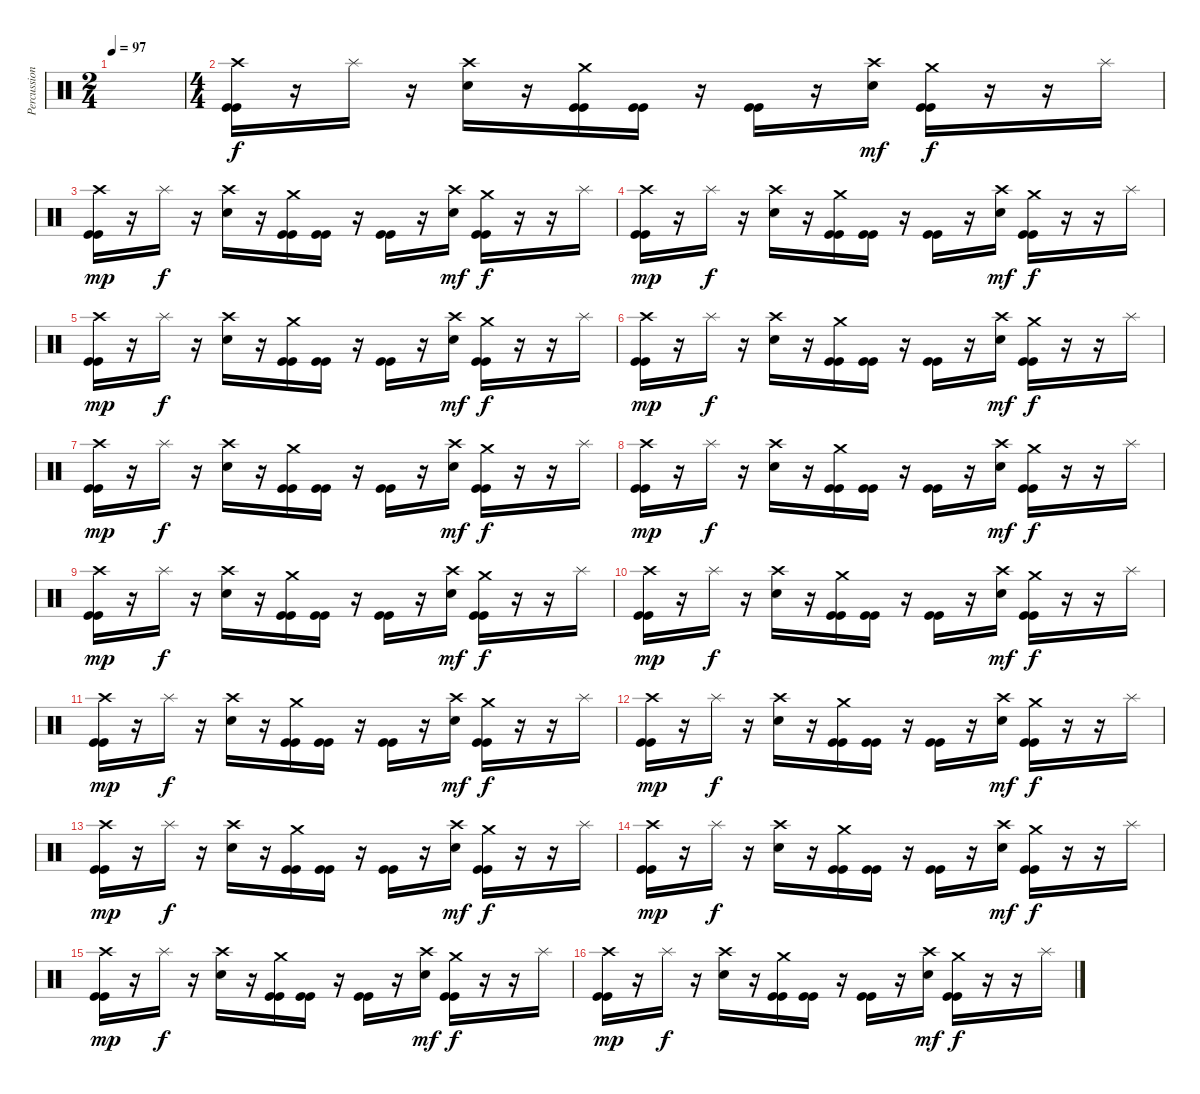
\track ("Percussions" "Percussion") {instrument percussion}
\staff {score}
\articulation defaults
\ts (2 4)
\tempo 97
\clef neutral
\ks c
|
\ts (4 4)
("Crash high (hit)" "Kick (hit)" "Kick (hit)").16 r.16 "Splash (hit)".16{dy f} r.16 ("Crash high (hit)" "Electric Snare (hit)").16 r.16 ("Crash medium (hit)" "Kick (hit)" "Kick (hit)").16 ("Kick (hit)" "Kick (hit)").16 r.16 ("Kick (hit)" "Kick (hit)").16 r.16 ("Crash high (hit)" "Electric Snare (hit)").16{dy mf} ("Crash medium (hit)" "Kick (hit)" "Kick (hit)").16{dy f} r.16 r.16 "Splash (hit)".16 |
("Crash high (hit)" "Kick (hit)" "Kick (hit)").16{dy mp} r.16 "Splash (hit)".16{dy f} r.16 ("Crash high (hit)" "Electric Snare (hit)").16 r.16 ("Crash medium (hit)" "Kick (hit)" "Kick (hit)").16 ("Kick (hit)" "Kick (hit)").16 r.16 ("Kick (hit)" "Kick (hit)").16 r.16 ("Crash high (hit)" "Electric Snare (hit)").16{dy mf} ("Crash medium (hit)" "Kick (hit)" "Kick (hit)").16{dy f} r.16 r.16 "Splash (hit)".16 |
("Crash high (hit)" "Kick (hit)" "Kick (hit)").16{dy mp} r.16 "Splash (hit)".16{dy f} r.16 ("Crash high (hit)" "Electric Snare (hit)").16 r.16 ("Crash medium (hit)" "Kick (hit)" "Kick (hit)").16 ("Kick (hit)" "Kick (hit)").16 r.16 ("Kick (hit)" "Kick (hit)").16 r.16 ("Crash high (hit)" "Electric Snare (hit)").16{dy mf} ("Crash medium (hit)" "Kick (hit)" "Kick (hit)").16{dy f} r.16 r.16 "Splash (hit)".16 |
("Crash high (hit)" "Kick (hit)" "Kick (hit)").16{dy mp} r.16 "Splash (hit)".16{dy f} r.16 ("Crash high (hit)" "Electric Snare (hit)").16 r.16 ("Crash medium (hit)" "Kick (hit)" "Kick (hit)").16 ("Kick (hit)" "Kick (hit)").16 r.16 ("Kick (hit)" "Kick (hit)").16 r.16 ("Crash high (hit)" "Electric Snare (hit)").16{dy mf} ("Crash medium (hit)" "Kick (hit)" "Kick (hit)").16{dy f} r.16 r.16 "Splash (hit)".16 |
("Crash high (hit)" "Kick (hit)" "Kick (hit)").16{dy mp} r.16 "Splash (hit)".16{dy f} r.16 ("Crash high (hit)" "Electric Snare (hit)").16 r.16 ("Crash medium (hit)" "Kick (hit)" "Kick (hit)").16 ("Kick (hit)" "Kick (hit)").16 r.16 ("Kick (hit)" "Kick (hit)").16 r.16 ("Crash high (hit)" "Electric Snare (hit)").16{dy mf} ("Crash medium (hit)" "Kick (hit)" "Kick (hit)").16{dy f} r.16 r.16 "Splash (hit)".16 |
("Crash high (hit)" "Kick (hit)" "Kick (hit)").16{dy mp} r.16 "Splash (hit)".16{dy f} r.16 ("Crash high (hit)" "Electric Snare (hit)").16 r.16 ("Crash medium (hit)" "Kick (hit)" "Kick (hit)").16 ("Kick (hit)" "Kick (hit)").16 r.16 ("Kick (hit)" "Kick (hit)").16 r.16 ("Crash high (hit)" "Electric Snare (hit)").16{dy mf} ("Crash medium (hit)" "Kick (hit)" "Kick (hit)").16{dy f} r.16 r.16 "Splash (hit)".16 |
("Crash high (hit)" "Kick (hit)" "Kick (hit)").16{dy mp} r.16 "Splash (hit)".16{dy f} r.16 ("Crash high (hit)" "Electric Snare (hit)").16 r.16 ("Crash medium (hit)" "Kick (hit)" "Kick (hit)").16 ("Kick (hit)" "Kick (hit)").16 r.16 ("Kick (hit)" "Kick (hit)").16 r.16 ("Crash high (hit)" "Electric Snare (hit)").16{dy mf} ("Crash medium (hit)" "Kick (hit)" "Kick (hit)").16{dy f} r.16 r.16 "Splash (hit)".16 |
("Crash high (hit)" "Kick (hit)" "Kick (hit)").16{dy mp} r.16 "Splash (hit)".16{dy f} r.16 ("Crash high (hit)" "Electric Snare (hit)").16 r.16 ("Crash medium (hit)" "Kick (hit)" "Kick (hit)").16 ("Kick (hit)" "Kick (hit)").16 r.16 ("Kick (hit)" "Kick (hit)").16 r.16 ("Crash high (hit)" "Electric Snare (hit)").16{dy mf} ("Crash medium (hit)" "Kick (hit)" "Kick (hit)").16{dy f} r.16 r.16 "Splash (hit)".16 |
("Crash high (hit)" "Kick (hit)" "Kick (hit)").16{dy mp} r.16 "Splash (hit)".16{dy f} r.16 ("Crash high (hit)" "Electric Snare (hit)").16 r.16 ("Crash medium (hit)" "Kick (hit)" "Kick (hit)").16 ("Kick (hit)" "Kick (hit)").16 r.16 ("Kick (hit)" "Kick (hit)").16 r.16 ("Crash high (hit)" "Electric Snare (hit)").16{dy mf} ("Crash medium (hit)" "Kick (hit)" "Kick (hit)").16{dy f} r.16 r.16 "Splash (hit)".16 |
("Crash high (hit)" "Kick (hit)" "Kick (hit)").16{dy mp} r.16 "Splash (hit)".16{dy f} r.16 ("Crash high (hit)" "Electric Snare (hit)").16 r.16 ("Crash medium (hit)" "Kick (hit)" "Kick (hit)").16 ("Kick (hit)" "Kick (hit)").16 r.16 ("Kick (hit)" "Kick (hit)").16 r.16 ("Crash high (hit)" "Electric Snare (hit)").16{dy mf} ("Crash medium (hit)" "Kick (hit)" "Kick (hit)").16{dy f} r.16 r.16 "Splash (hit)".16 |
("Crash high (hit)" "Kick (hit)" "Kick (hit)").16{dy mp} r.16 "Splash (hit)".16{dy f} r.16 ("Crash high (hit)" "Electric Snare (hit)").16 r.16 ("Crash medium (hit)" "Kick (hit)" "Kick (hit)").16 ("Kick (hit)" "Kick (hit)").16 r.16 ("Kick (hit)" "Kick (hit)").16 r.16 ("Crash high (hit)" "Electric Snare (hit)").16{dy mf} ("Crash medium (hit)" "Kick (hit)" "Kick (hit)").16{dy f} r.16 r.16 "Splash (hit)".16 |
("Crash high (hit)" "Kick (hit)" "Kick (hit)").16{dy mp} r.16 "Splash (hit)".16{dy f} r.16 ("Crash high (hit)" "Electric Snare (hit)").16 r.16 ("Crash medium (hit)" "Kick (hit)" "Kick (hit)").16 ("Kick (hit)" "Kick (hit)").16 r.16 ("Kick (hit)" "Kick (hit)").16 r.16 ("Crash high (hit)" "Electric Snare (hit)").16{dy mf} ("Crash medium (hit)" "Kick (hit)" "Kick (hit)").16{dy f} r.16 r.16 "Splash (hit)".16 |
("Crash high (hit)" "Kick (hit)" "Kick (hit)").16{dy mp} r.16 "Splash (hit)".16{dy f} r.16 ("Crash high (hit)" "Electric Snare (hit)").16 r.16 ("Crash medium (hit)" "Kick (hit)" "Kick (hit)").16 ("Kick (hit)" "Kick (hit)").16 r.16 ("Kick (hit)" "Kick (hit)").16 r.16 ("Crash high (hit)" "Electric Snare (hit)").16{dy mf} ("Crash medium (hit)" "Kick (hit)" "Kick (hit)").16{dy f} r.16 r.16 "Splash (hit)".16 |
("Crash high (hit)" "Kick (hit)" "Kick (hit)").16{dy mp} r.16 "Splash (hit)".16{dy f} r.16 ("Crash high (hit)" "Electric Snare (hit)").16 r.16 ("Crash medium (hit)" "Kick (hit)" "Kick (hit)").16 ("Kick (hit)" "Kick (hit)").16 r.16 ("Kick (hit)" "Kick (hit)").16 r.16 ("Crash high (hit)" "Electric Snare (hit)").16{dy mf} ("Crash medium (hit)" "Kick (hit)" "Kick (hit)").16{dy f} r.16 r.16 "Splash (hit)".16 |
("Crash high (hit)" "Kick (hit)" "Kick (hit)").16{dy mp} r.16 "Splash (hit)".16{dy f} r.16 ("Crash high (hit)" "Electric Snare (hit)").16 r.16 ("Crash medium (hit)" "Kick (hit)" "Kick (hit)").16 ("Kick (hit)" "Kick (hit)").16 r.16 ("Kick (hit)" "Kick (hit)").16 r.16 ("Crash high (hit)" "Electric Snare (hit)").16{dy mf} ("Crash medium (hit)" "Kick (hit)" "Kick (hit)").16{dy f} r.16 r.16 "Splash (hit)".16
